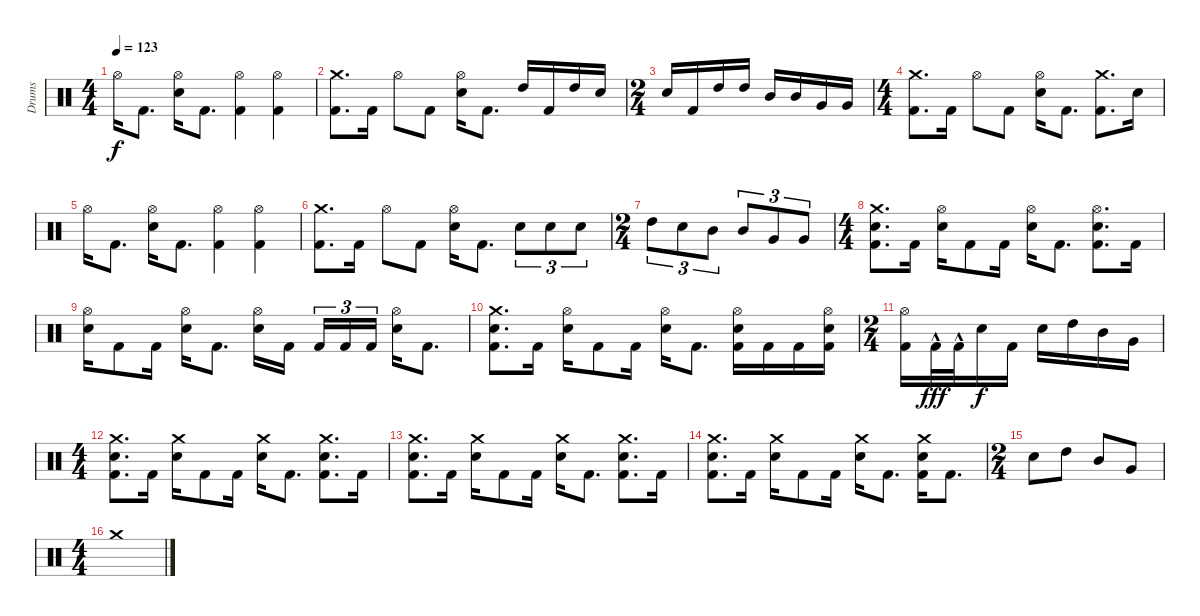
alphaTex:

\track ("Drums" "Drums") {instrument percussion}
\staff {score}
\articulation defaults
\ts (4 4)
\tempo 123
\clef neutral
\ks c "Hi-Hat (open)".16{dy f} "Kick (hit) 2".8{d}
("Hi-Hat (open)" "Electric Snare (hit)").16 "Kick (hit) 2".8{d} ("Hi-Hat (open)" "Kick (hit) 2").4 ("Hi-Hat (open)" "Kick (hit) 2").4 |
("Crash medium (hit)" "Kick (hit) 2").8{d} "Kick (hit) 2".16 "Hi-Hat (open)".8 "Kick (hit) 2".8 ("Hi-Hat (open)" "Electric Snare (hit)").16 "Kick (hit) 2".8{d} "High Tom (hit)".16 "Kick (hit) 2".16 "High Tom (hit)".16 "Electric Snare (hit)".16 |
\ts (2 4)
"Electric Snare (hit)".16 "Kick (hit) 2".16 "High Tom (hit)".16 "High Tom (hit)".16 "Mid Tom (hit)".16 "Mid Tom (hit)".16 "Very Low Tom (hit)".16 "Very Low Tom (hit)".16 |
\ts (4 4)
("Crash medium (hit)" "Kick (hit) 2").8{d} "Kick (hit) 2".16 "Hi-Hat (open)".8 "Kick (hit) 2".8 ("Hi-Hat (open)" "Electric Snare (hit)").16 "Kick (hit) 2".8{d} ("Crash medium (hit)" "Kick (hit) 2").8{d} "Electric Snare (hit)".16 |
"Hi-Hat (open)".16 "Kick (hit) 2".8{d} ("Hi-Hat (open)" "Electric Snare (hit)").16 "Kick (hit) 2".8{d} ("Hi-Hat (open)" "Kick (hit) 2").4 ("Hi-Hat (open)" "Kick (hit) 2").4 |
("Crash medium (hit)" "Kick (hit) 2").8{d} "Kick (hit) 2".16 "Hi-Hat (open)".8 "Kick (hit) 2".8 ("Hi-Hat (open)" "Electric Snare (hit)").16 "Kick (hit) 2".8{d} "Electric Snare (hit)".8{tu (3 2)} "Electric Snare (hit)".8{tu (3 2)} "Electric Snare (hit)".8{tu (3 2)} |
\ts (2 4)
"High Tom (hit)".8{tu (3 2)} "Electric Snare (hit)".8{tu (3 2)} "Mid Tom (hit)".8{tu (3 2)} "Mid Tom (hit)".8{tu (3 2)} "Very Low Tom (hit)".8{tu (3 2)} "Very Low Tom (hit)".8{tu (3 2)} |
\ts (4 4)
("Crash medium (hit)" "Electric Snare (hit)" "Kick (hit) 2").8{d} "Kick (hit) 2".16 ("Hi-Hat (open)" "Electric Snare (hit)").16 "Kick (hit) 2".8 "Kick (hit) 2".16 ("Hi-Hat (open)" "Electric Snare (hit)").16 "Kick (hit) 2".8{d} ("Hi-Hat (open)" "Electric Snare (hit)" "Kick (hit) 2").8{d} "Kick (hit) 2".16 |
("Hi-Hat (open)" "Electric Snare (hit)").16 "Kick (hit) 2".8 "Kick (hit) 2".16 ("Hi-Hat (open)" "Electric Snare (hit)").16 "Kick (hit) 2".8{d} ("Hi-Hat (open)" "Electric Snare (hit)").16 "Kick (hit) 2".16{beam splitsecondary} "Kick (hit) 2".16{tu (3 2)} "Kick (hit) 2".16{tu (3 2)} "Kick (hit) 2".16{tu (3 2)} ("Hi-Hat (open)" "Electric Snare (hit)").16 "Kick (hit) 2".8{d} |
("Crash medium (hit)" "Electric Snare (hit)" "Kick (hit) 2").8{d} "Kick (hit) 2".16 ("Hi-Hat (open)" "Electric Snare (hit)").16 "Kick (hit) 2".8 "Kick (hit) 2".16 ("Hi-Hat (open)" "Electric Snare (hit)").16 "Kick (hit) 2".8{d} ("Hi-Hat (open)" "Electric Snare (hit)" "Kick (hit) 2").16 "Kick (hit) 2".16 "Kick (hit) 2".16 ("Hi-Hat (open)" "Electric Snare (hit)" "Kick (hit) 2").16 |
\ts (2 4)
("Hi-Hat (open)" "Kick (hit) 2").16 "Kick (hit) 2"{hac}.32{dy fff} "Kick (hit) 2"{hac}.32 "Electric Snare (hit)".16{dy f} "Kick (hit) 2".16 "Electric Snare (hit)".16 "High Tom (hit)".16 "Mid Tom (hit)".16 "Very Low Tom (hit)".16 |
\ts (4 4)
("Crash medium (hit)" "Electric Snare (hit)" "Kick (hit) 2").8{d} "Kick (hit) 2".16 ("Crash medium (hit)" "Electric Snare (hit)").16 "Kick (hit) 2".8 "Kick (hit) 2".16 ("Crash medium (hit)" "Electric Snare (hit)").16 "Kick (hit) 2".8{d} ("Crash medium (hit)" "Electric Snare (hit)" "Kick (hit) 2").8{d} "Kick (hit) 2".16 |
("Crash medium (hit)" "Electric Snare (hit)" "Kick (hit) 2").8{d} "Kick (hit) 2".16 ("Crash medium (hit)" "Electric Snare (hit)").16 "Kick (hit) 2".8 "Kick (hit) 2".16 ("Crash medium (hit)" "Electric Snare (hit)").16 "Kick (hit) 2".8{d} ("Crash medium (hit)" "Electric Snare (hit)" "Kick (hit) 2").8{d} "Kick (hit) 2".16 |
("Crash medium (hit)" "Electric Snare (hit)" "Kick (hit) 2").8{d} "Kick (hit) 2".16 ("Crash medium (hit)" "Electric Snare (hit)").16 "Kick (hit) 2".8 "Kick (hit) 2".16 ("Crash medium (hit)" "Electric Snare (hit)").16 "Kick (hit) 2".8{d} ("Crash medium (hit)" "Electric Snare (hit)" "Kick (hit) 2").16 "Kick (hit) 2".8{d} |
\ts (2 4)
"Electric Snare (hit)".8 "High Tom (hit)".8 "Mid Tom (hit)".8 "Very Low Tom (hit)".8 |
\ts (4 4)
"Crash medium (hit)".1
